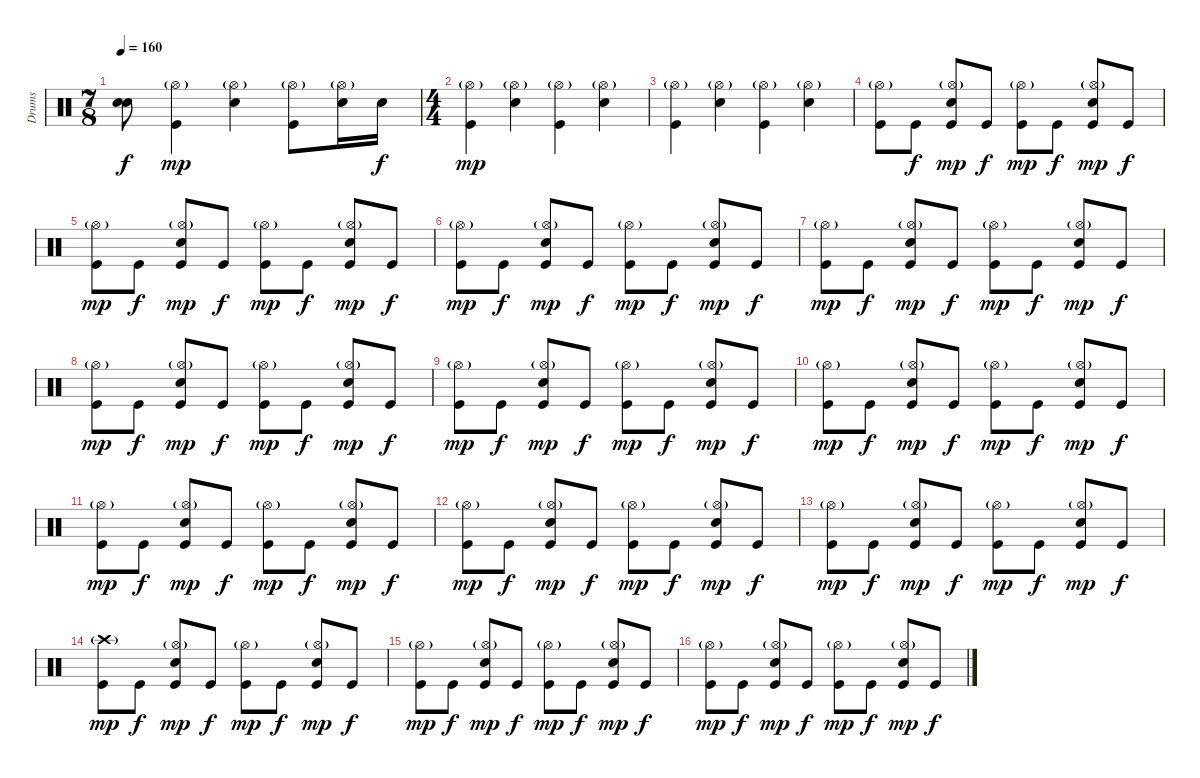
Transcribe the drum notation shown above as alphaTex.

\track ("Drums" "Drums") {instrument percussion}
\staff {score}
\articulation defaults
\ts (7 8)
\tempo 160
\clef neutral
\ks c
("Snare (hit)"{t} "Snare (hit)"{t}).8{dy f} ("Hi-Hat (open)"{g} "Kick (hit)").4{dy mp} ("Hi-Hat (open)"{g} "Snare (hit) 2").4 ("Hi-Hat (open)"{g} "Kick (hit)").8 ("Hi-Hat (open)"{g} "Snare (hit) 2").16 "Snare (hit) 2".16{dy f} |
\ts (4 4)
("Hi-Hat (open)"{g} "Kick (hit)").4{dy mp} ("Hi-Hat (open)"{g} "Snare (hit) 2").4 ("Hi-Hat (open)"{g} "Kick (hit)").4 ("Hi-Hat (open)"{g} "Snare (hit) 2").4 |
("Hi-Hat (open)"{g} "Kick (hit)").4 ("Hi-Hat (open)"{g} "Snare (hit) 2").4 ("Hi-Hat (open)"{g} "Kick (hit)").4 ("Hi-Hat (open)"{g} "Snare (hit) 2").4 |
("Hi-Hat (open)"{g} "Kick (hit)").8 "Kick (hit)".8{dy f} ("Hi-Hat (open)"{g} "Snare (hit) 2" "Kick (hit)").8{dy mp} "Kick (hit)".8{dy f} ("Hi-Hat (open)"{g} "Kick (hit)").8{dy mp} "Kick (hit)".8{dy f} ("Hi-Hat (open)"{g} "Snare (hit) 2" "Kick (hit)").8{dy mp} "Kick (hit)".8{dy f} |
("Hi-Hat (open)"{g} "Kick (hit)").8{dy mp} "Kick (hit)".8{dy f} ("Hi-Hat (open)"{g} "Snare (hit) 2" "Kick (hit)").8{dy mp} "Kick (hit)".8{dy f} ("Hi-Hat (open)"{g} "Kick (hit)").8{dy mp} "Kick (hit)".8{dy f} ("Hi-Hat (open)"{g} "Snare (hit) 2" "Kick (hit)").8{dy mp} "Kick (hit)".8{dy f} |
("Hi-Hat (open)"{g} "Kick (hit)").8{dy mp} "Kick (hit)".8{dy f} ("Hi-Hat (open)"{g} "Snare (hit) 2" "Kick (hit)").8{dy mp} "Kick (hit)".8{dy f} ("Hi-Hat (open)"{g} "Kick (hit)").8{dy mp} "Kick (hit)".8{dy f} ("Hi-Hat (open)"{g} "Snare (hit) 2" "Kick (hit)").8{dy mp} "Kick (hit)".8{dy f} |
("Hi-Hat (open)"{g} "Kick (hit)").8{dy mp} "Kick (hit)".8{dy f} ("Hi-Hat (open)"{g} "Snare (hit) 2" "Kick (hit)").8{dy mp} "Kick (hit)".8{dy f} ("Hi-Hat (open)"{g} "Kick (hit)").8{dy mp} "Kick (hit)".8{dy f} ("Hi-Hat (open)"{g} "Snare (hit) 2" "Kick (hit)").8{dy mp} "Kick (hit)".8{dy f} |
("Hi-Hat (open)"{g} "Kick (hit)").8{dy mp} "Kick (hit)".8{dy f} ("Hi-Hat (open)"{g} "Snare (hit) 2" "Kick (hit)").8{dy mp} "Kick (hit)".8{dy f} ("Hi-Hat (open)"{g} "Kick (hit)").8{dy mp} "Kick (hit)".8{dy f} ("Hi-Hat (open)"{g} "Snare (hit) 2" "Kick (hit)").8{dy mp} "Kick (hit)".8{dy f} |
("Hi-Hat (open)"{g} "Kick (hit)").8{dy mp} "Kick (hit)".8{dy f} ("Hi-Hat (open)"{g} "Snare (hit) 2" "Kick (hit)").8{dy mp} "Kick (hit)".8{dy f} ("Hi-Hat (open)"{g} "Kick (hit)").8{dy mp} "Kick (hit)".8{dy f} ("Hi-Hat (open)"{g} "Snare (hit) 2" "Kick (hit)").8{dy mp} "Kick (hit)".8{dy f} |
("Hi-Hat (open)"{g} "Kick (hit)").8{dy mp} "Kick (hit)".8{dy f} ("Hi-Hat (open)"{g} "Snare (hit) 2" "Kick (hit)").8{dy mp} "Kick (hit)".8{dy f} ("Hi-Hat (open)"{g} "Kick (hit)").8{dy mp} "Kick (hit)".8{dy f} ("Hi-Hat (open)"{g} "Snare (hit) 2" "Kick (hit)").8{dy mp} "Kick (hit)".8{dy f} |
("Hi-Hat (open)"{g} "Kick (hit)").8{dy mp} "Kick (hit)".8{dy f} ("Hi-Hat (open)"{g} "Snare (hit) 2" "Kick (hit)").8{dy mp} "Kick (hit)".8{dy f} ("Hi-Hat (open)"{g} "Kick (hit)").8{dy mp} "Kick (hit)".8{dy f} ("Hi-Hat (open)"{g} "Snare (hit) 2" "Kick (hit)").8{dy mp} "Kick (hit)".8{dy f} |
("Hi-Hat (open)"{g} "Kick (hit)").8{dy mp} "Kick (hit)".8{dy f} ("Hi-Hat (open)"{g} "Snare (hit) 2" "Kick (hit)").8{dy mp} "Kick (hit)".8{dy f} ("Hi-Hat (open)"{g} "Kick (hit)").8{dy mp} "Kick (hit)".8{dy f} ("Hi-Hat (open)"{g} "Snare (hit) 2" "Kick (hit)").8{dy mp} "Kick (hit)".8{dy f} |
("Hi-Hat (open)"{g} "Kick (hit)").8{dy mp} "Kick (hit)".8{dy f} ("Hi-Hat (open)"{g} "Snare (hit) 2" "Kick (hit)").8{dy mp} "Kick (hit)".8{dy f} ("Hi-Hat (open)"{g} "Kick (hit)").8{dy mp} "Kick (hit)".8{dy f} ("Hi-Hat (open)"{g} "Snare (hit) 2" "Kick (hit)").8{dy mp} "Kick (hit)".8{dy f} |
("Crash high (hit)"{g} "Kick (hit)").8{dy mp} "Kick (hit)".8{dy f} ("Hi-Hat (open)"{g} "Snare (hit) 2" "Kick (hit)").8{dy mp} "Kick (hit)".8{dy f} ("Hi-Hat (open)"{g} "Kick (hit)").8{dy mp} "Kick (hit)".8{dy f} ("Hi-Hat (open)"{g} "Snare (hit) 2" "Kick (hit)").8{dy mp} "Kick (hit)".8{dy f} |
("Hi-Hat (open)"{g} "Kick (hit)").8{dy mp} "Kick (hit)".8{dy f} ("Hi-Hat (open)"{g} "Snare (hit) 2" "Kick (hit)").8{dy mp} "Kick (hit)".8{dy f} ("Hi-Hat (open)"{g} "Kick (hit)").8{dy mp} "Kick (hit)".8{dy f} ("Hi-Hat (open)"{g} "Snare (hit) 2" "Kick (hit)").8{dy mp} "Kick (hit)".8{dy f} |
("Hi-Hat (open)"{g} "Kick (hit)").8{dy mp} "Kick (hit)".8{dy f} ("Hi-Hat (open)"{g} "Snare (hit) 2" "Kick (hit)").8{dy mp} "Kick (hit)".8{dy f} ("Hi-Hat (open)"{g} "Kick (hit)").8{dy mp} "Kick (hit)".8{dy f} ("Hi-Hat (open)"{g} "Snare (hit) 2" "Kick (hit)").8{dy mp} "Kick (hit)".8{dy f}
